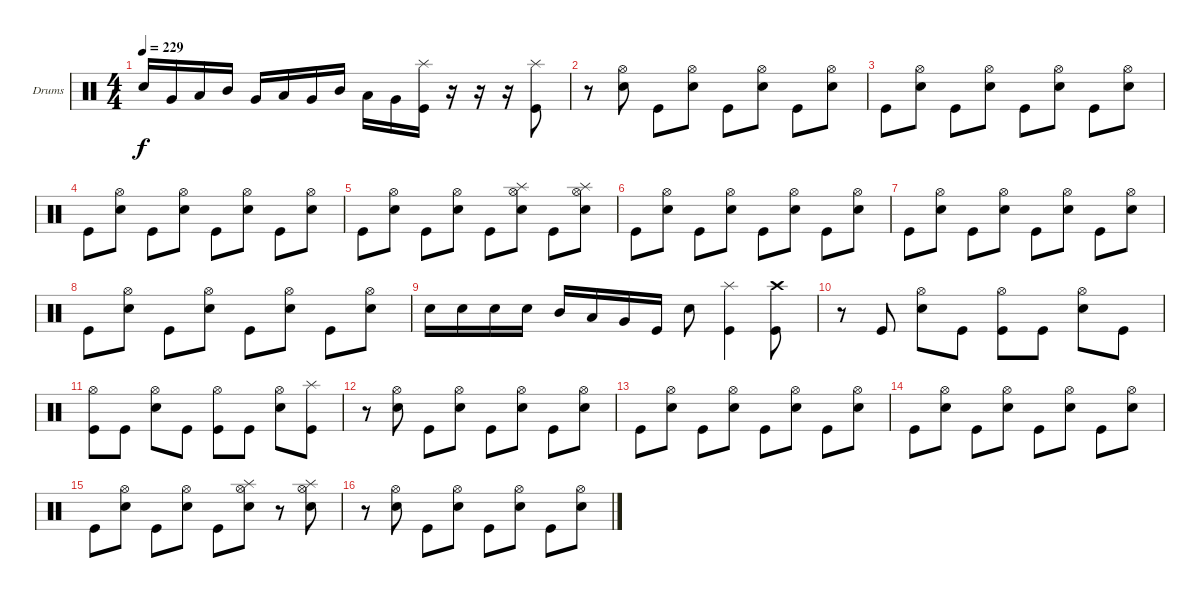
\defaultSystemsLayout 4
\bracketExtendMode groupsimilarinstruments
\firstSystemTrackNameOrientation horizontal
\otherSystemsTrackNameOrientation horizontal
\track ("Drumkit" "Drums") {instrument percussion}
\staff {score}
\articulation defaults
\ts (4 4)
\tempo 229
\clef neutral
\ks c "Snare (hit) 2".16{dy f} "Very Low Tom (hit)".16 "Low Tom (hit)".16 "Mid Tom (hit)".16 "Very Low Tom (hit)".16 "Low Tom (hit)".16 "Very Low Tom (hit)".16 "Mid Tom (hit)".16 "Low Tom (hit)".16 "Very Low Tom (hit)".16
("Kick (hit)" "Splash (hit)").16 r.16 r.16 r.16 ("Kick (hit)" "Splash (hit)").8 |
r.8 ("Snare (hit) 2" "Hi-Hat (open)").8 "Kick (hit)".8 ("Snare (hit) 2" "Hi-Hat (open)").8 "Kick (hit)".8 ("Snare (hit) 2" "Hi-Hat (open)").8 "Kick (hit)".8 ("Snare (hit) 2" "Hi-Hat (open)").8 |
"Kick (hit)".8 ("Snare (hit) 2" "Hi-Hat (open)").8 "Kick (hit)".8 ("Snare (hit) 2" "Hi-Hat (open)").8 "Kick (hit)".8 ("Snare (hit) 2" "Hi-Hat (open)").8 "Kick (hit)".8 ("Snare (hit) 2" "Hi-Hat (open)").8 |
"Kick (hit)".8 ("Snare (hit) 2" "Hi-Hat (open)").8 "Kick (hit)".8 ("Snare (hit) 2" "Hi-Hat (open)").8 "Kick (hit)".8 ("Snare (hit) 2" "Hi-Hat (open)").8 "Kick (hit)".8 ("Snare (hit) 2" "Hi-Hat (open)").8 |
"Kick (hit)".8 ("Snare (hit) 2" "Hi-Hat (open)").8 "Kick (hit)".8 ("Snare (hit) 2" "Hi-Hat (open)").8 "Kick (hit)".8 ("Snare (hit) 2" "Hi-Hat (open)" "Splash (hit)").8 "Kick (hit)".8 ("Snare (hit) 2" "Hi-Hat (open)" "Splash (hit)").8 |
"Kick (hit)".8 ("Snare (hit) 2" "Hi-Hat (open)").8 "Kick (hit)".8 ("Snare (hit) 2" "Hi-Hat (open)").8 "Kick (hit)".8 ("Snare (hit) 2" "Hi-Hat (open)").8 "Kick (hit)".8 ("Snare (hit) 2" "Hi-Hat (open)").8 |
"Kick (hit)".8 ("Snare (hit) 2" "Hi-Hat (open)").8 "Kick (hit)".8 ("Snare (hit) 2" "Hi-Hat (open)").8 "Kick (hit)".8 ("Snare (hit) 2" "Hi-Hat (open)").8 "Kick (hit)".8 ("Snare (hit) 2" "Hi-Hat (open)").8 |
"Kick (hit)".8 ("Snare (hit) 2" "Hi-Hat (open)").8 "Kick (hit)".8 ("Snare (hit) 2" "Hi-Hat (open)").8 "Kick (hit)".8 ("Snare (hit) 2" "Hi-Hat (open)").8 "Kick (hit)".8 ("Snare (hit) 2" "Hi-Hat (open)").8 |
"Snare (hit) 2".16 "Snare (hit) 2".16 "Snare (hit) 2".16 "Snare (hit) 2".16 "Mid Tom (hit)".16 "Low Tom (hit)".16 "Very Low Tom (hit)".16 "Kick (hit)".16 "Snare (hit) 2".8 ("Kick (hit)" "Splash (hit)").4 ("Kick (hit)" "Crash high (hit)").8 |
r.8 "Kick (hit)".8 ("Snare (hit) 2" "Hi-Hat (open)").8 "Kick (hit)".8 ("Kick (hit)" "Hi-Hat (open)").8 "Kick (hit)".8 ("Snare (hit) 2" "Hi-Hat (open)").8 "Kick (hit)".8 |
("Kick (hit)" "Hi-Hat (open)").8 "Kick (hit)".8 ("Snare (hit) 2" "Hi-Hat (open)").8 "Kick (hit)".8 ("Kick (hit)" "Hi-Hat (open)").8 "Kick (hit)".8 ("Snare (hit) 2" "Hi-Hat (open)").8 ("Kick (hit)" "Splash (hit)").8 |
r.8 ("Snare (hit) 2" "Hi-Hat (open)").8 "Kick (hit)".8 ("Snare (hit) 2" "Hi-Hat (open)").8 "Kick (hit)".8 ("Snare (hit) 2" "Hi-Hat (open)").8 "Kick (hit)".8 ("Snare (hit) 2" "Hi-Hat (open)").8 |
"Kick (hit)".8 ("Snare (hit) 2" "Hi-Hat (open)").8 "Kick (hit)".8 ("Snare (hit) 2" "Hi-Hat (open)").8 "Kick (hit)".8 ("Snare (hit) 2" "Hi-Hat (open)").8 "Kick (hit)".8 ("Snare (hit) 2" "Hi-Hat (open)").8 |
"Kick (hit)".8 ("Snare (hit) 2" "Hi-Hat (open)").8 "Kick (hit)".8 ("Snare (hit) 2" "Hi-Hat (open)").8 "Kick (hit)".8 ("Snare (hit) 2" "Hi-Hat (open)").8 "Kick (hit)".8 ("Snare (hit) 2" "Hi-Hat (open)").8 |
"Kick (hit)".8 ("Snare (hit) 2" "Hi-Hat (open)").8 "Kick (hit)".8 ("Snare (hit) 2" "Hi-Hat (open)").8 "Kick (hit)".8 ("Snare (hit) 2" "Hi-Hat (open)" "Splash (hit)").8 r.8 ("Snare (hit) 2" "Hi-Hat (open)" "Splash (hit)").8 |
r.8 ("Snare (hit) 2" "Hi-Hat (open)").8 "Kick (hit)".8 ("Snare (hit) 2" "Hi-Hat (open)").8 "Kick (hit)".8 ("Snare (hit) 2" "Hi-Hat (open)").8 "Kick (hit)".8 ("Snare (hit) 2" "Hi-Hat (open)").8
